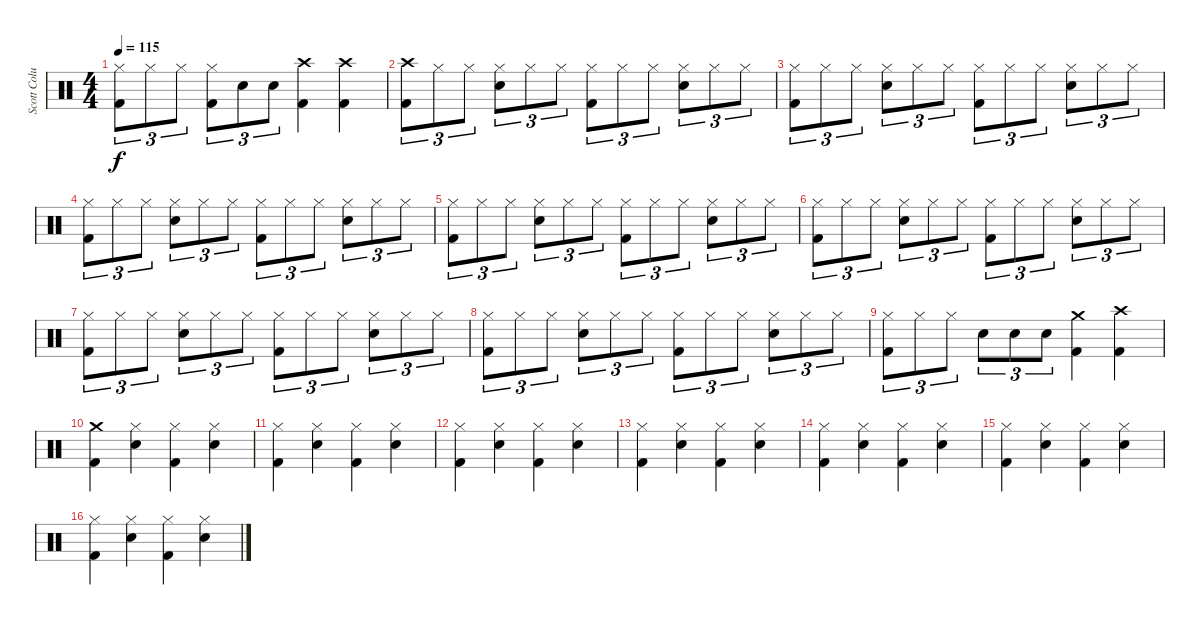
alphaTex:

\track ("Scott Columus(Drums)" "Scott Colu") {instrument percussion}
\staff {score}
\articulation defaults
\ts (4 4)
\tempo 115
\clef neutral
\ks c
("Hi-Hat (closed)" "Kick (hit) 2").8{tu (3 2) dy f} "Hi-Hat (closed)".8{tu (3 2)} "Hi-Hat (closed)".8{tu (3 2)} ("Hi-Hat (closed)" "Kick (hit) 2").8{tu (3 2)} "Snare (hit) 2".8{tu (3 2)} "Snare (hit) 2".8{tu (3 2)} ("Crash high (hit)" "Kick (hit) 2").4 ("Crash high (hit)" "Kick (hit) 2").4 |
("Crash high (hit)" "Kick (hit) 2").8{tu (3 2)} "Hi-Hat (closed)".8{tu (3 2)} "Hi-Hat (closed)".8{tu (3 2)} ("Hi-Hat (closed)" "Snare (hit) 2").8{tu (3 2)} "Hi-Hat (closed)".8{tu (3 2)} "Hi-Hat (closed)".8{tu (3 2)} ("Hi-Hat (closed)" "Kick (hit) 2").8{tu (3 2)} "Hi-Hat (closed)".8{tu (3 2)} "Hi-Hat (closed)".8{tu (3 2)} ("Hi-Hat (closed)" "Snare (hit) 2").8{tu (3 2)} "Hi-Hat (closed)".8{tu (3 2)} "Hi-Hat (closed)".8{tu (3 2)} |
("Hi-Hat (closed)" "Kick (hit) 2").8{tu (3 2)} "Hi-Hat (closed)".8{tu (3 2)} "Hi-Hat (closed)".8{tu (3 2)} ("Hi-Hat (closed)" "Snare (hit) 2").8{tu (3 2)} "Hi-Hat (closed)".8{tu (3 2)} "Hi-Hat (closed)".8{tu (3 2)} ("Hi-Hat (closed)" "Kick (hit) 2").8{tu (3 2)} "Hi-Hat (closed)".8{tu (3 2)} "Hi-Hat (closed)".8{tu (3 2)} ("Hi-Hat (closed)" "Snare (hit) 2").8{tu (3 2)} "Hi-Hat (closed)".8{tu (3 2)} "Hi-Hat (closed)".8{tu (3 2)} |
("Hi-Hat (closed)" "Kick (hit) 2").8{tu (3 2)} "Hi-Hat (closed)".8{tu (3 2)} "Hi-Hat (closed)".8{tu (3 2)} ("Hi-Hat (closed)" "Snare (hit) 2").8{tu (3 2)} "Hi-Hat (closed)".8{tu (3 2)} "Hi-Hat (closed)".8{tu (3 2)} ("Hi-Hat (closed)" "Kick (hit) 2").8{tu (3 2)} "Hi-Hat (closed)".8{tu (3 2)} "Hi-Hat (closed)".8{tu (3 2)} ("Hi-Hat (closed)" "Snare (hit) 2").8{tu (3 2)} "Hi-Hat (closed)".8{tu (3 2)} "Hi-Hat (closed)".8{tu (3 2)} |
("Hi-Hat (closed)" "Kick (hit) 2").8{tu (3 2)} "Hi-Hat (closed)".8{tu (3 2)} "Hi-Hat (closed)".8{tu (3 2)} ("Hi-Hat (closed)" "Snare (hit) 2").8{tu (3 2)} "Hi-Hat (closed)".8{tu (3 2)} "Hi-Hat (closed)".8{tu (3 2)} ("Hi-Hat (closed)" "Kick (hit) 2").8{tu (3 2)} "Hi-Hat (closed)".8{tu (3 2)} "Hi-Hat (closed)".8{tu (3 2)} ("Hi-Hat (closed)" "Snare (hit) 2").8{tu (3 2)} "Hi-Hat (closed)".8{tu (3 2)} "Hi-Hat (closed)".8{tu (3 2)} |
("Hi-Hat (closed)" "Kick (hit) 2").8{tu (3 2)} "Hi-Hat (closed)".8{tu (3 2)} "Hi-Hat (closed)".8{tu (3 2)} ("Hi-Hat (closed)" "Snare (hit) 2").8{tu (3 2)} "Hi-Hat (closed)".8{tu (3 2)} "Hi-Hat (closed)".8{tu (3 2)} ("Hi-Hat (closed)" "Kick (hit) 2").8{tu (3 2)} "Hi-Hat (closed)".8{tu (3 2)} "Hi-Hat (closed)".8{tu (3 2)} ("Hi-Hat (closed)" "Snare (hit) 2").8{tu (3 2)} "Hi-Hat (closed)".8{tu (3 2)} "Hi-Hat (closed)".8{tu (3 2)} |
("Hi-Hat (closed)" "Kick (hit) 2").8{tu (3 2)} "Hi-Hat (closed)".8{tu (3 2)} "Hi-Hat (closed)".8{tu (3 2)} ("Hi-Hat (closed)" "Snare (hit) 2").8{tu (3 2)} "Hi-Hat (closed)".8{tu (3 2)} "Hi-Hat (closed)".8{tu (3 2)} ("Hi-Hat (closed)" "Kick (hit) 2").8{tu (3 2)} "Hi-Hat (closed)".8{tu (3 2)} "Hi-Hat (closed)".8{tu (3 2)} ("Hi-Hat (closed)" "Snare (hit) 2").8{tu (3 2)} "Hi-Hat (closed)".8{tu (3 2)} "Hi-Hat (closed)".8{tu (3 2)} |
("Hi-Hat (closed)" "Kick (hit) 2").8{tu (3 2)} "Hi-Hat (closed)".8{tu (3 2)} "Hi-Hat (closed)".8{tu (3 2)} ("Hi-Hat (closed)" "Snare (hit) 2").8{tu (3 2)} "Hi-Hat (closed)".8{tu (3 2)} "Hi-Hat (closed)".8{tu (3 2)} ("Hi-Hat (closed)" "Kick (hit) 2").8{tu (3 2)} "Hi-Hat (closed)".8{tu (3 2)} "Hi-Hat (closed)".8{tu (3 2)} ("Hi-Hat (closed)" "Snare (hit) 2").8{tu (3 2)} "Hi-Hat (closed)".8{tu (3 2)} "Hi-Hat (closed)".8{tu (3 2)} |
("Hi-Hat (closed)" "Kick (hit) 2").8{tu (3 2)} "Hi-Hat (closed)".8{tu (3 2)} "Hi-Hat (closed)".8{tu (3 2)} "Snare (hit) 2".8{tu (3 2)} "Snare (hit) 2".8{tu (3 2)} "Snare (hit) 2".8{tu (3 2)} ("Crash medium (hit)" "Kick (hit) 2").4 ("Crash high (hit)" "Kick (hit) 2").4 |
("Crash medium (hit)" "Kick (hit) 2").4 ("Hi-Hat (closed)" "Snare (hit) 2").4 ("Hi-Hat (closed)" "Kick (hit) 2").4 ("Hi-Hat (closed)" "Snare (hit) 2").4 |
("Hi-Hat (closed)" "Kick (hit) 2").4 ("Hi-Hat (closed)" "Snare (hit) 2").4 ("Hi-Hat (closed)" "Kick (hit) 2").4 ("Hi-Hat (closed)" "Snare (hit) 2").4 |
("Hi-Hat (closed)" "Kick (hit) 2").4 ("Hi-Hat (closed)" "Snare (hit) 2").4 ("Hi-Hat (closed)" "Kick (hit) 2").4 ("Hi-Hat (closed)" "Snare (hit) 2").4 |
("Hi-Hat (closed)" "Kick (hit) 2").4 ("Hi-Hat (closed)" "Snare (hit) 2").4 ("Hi-Hat (closed)" "Kick (hit) 2").4 ("Hi-Hat (closed)" "Snare (hit) 2").4 |
("Hi-Hat (closed)" "Kick (hit) 2").4 ("Hi-Hat (closed)" "Snare (hit) 2").4 ("Hi-Hat (closed)" "Kick (hit) 2").4 ("Hi-Hat (closed)" "Snare (hit) 2").4 |
("Hi-Hat (closed)" "Kick (hit) 2").4 ("Hi-Hat (closed)" "Snare (hit) 2").4 ("Hi-Hat (closed)" "Kick (hit) 2").4 ("Hi-Hat (closed)" "Snare (hit) 2").4 |
("Hi-Hat (closed)" "Kick (hit) 2").4 ("Hi-Hat (closed)" "Snare (hit) 2").4 ("Hi-Hat (closed)" "Kick (hit) 2").4 ("Hi-Hat (closed)" "Snare (hit) 2").4
